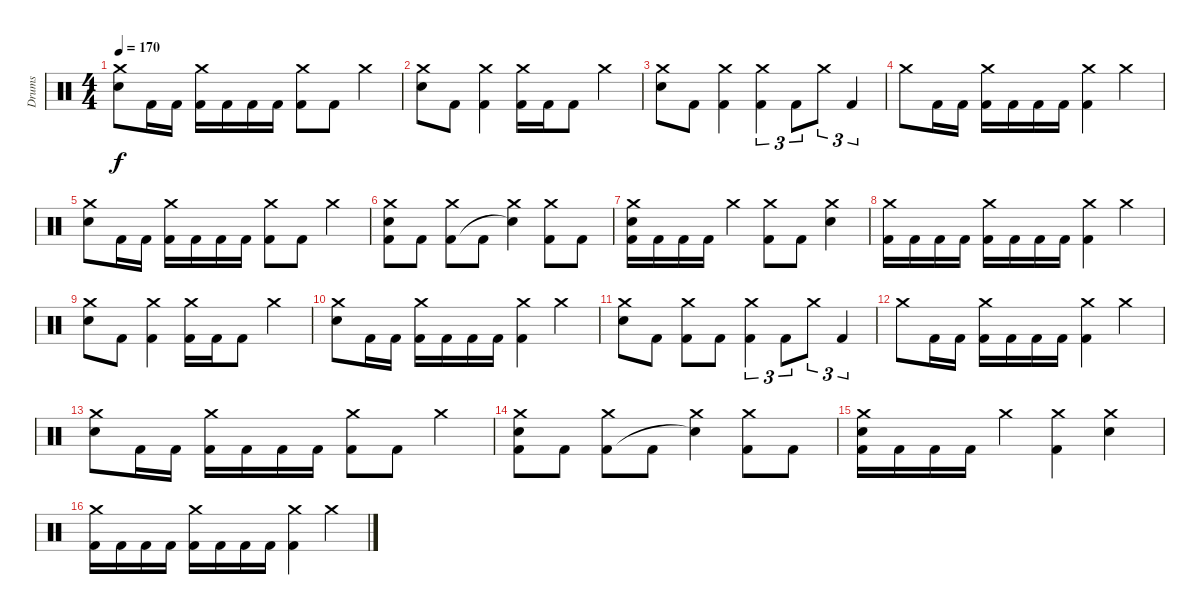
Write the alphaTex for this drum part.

\track ("Drums" "Drums") {instrument percussion}
\staff {score}
\articulation defaults
\ts (4 4)
\tempo 170
\clef neutral
\ks c
("Crash medium (hit)" "Snare (hit) 2").8{dy f} "Kick (hit) 2".16 "Kick (hit) 2".16 ("Crash medium (hit)" "Kick (hit) 2").16 "Kick (hit) 2".16 "Kick (hit) 2".16 "Kick (hit) 2".16 ("Crash medium (hit)" "Kick (hit) 2").8 "Kick (hit) 2".8 "Crash medium (hit)".4 |
("Crash medium (hit)" "Snare (hit) 2").8 "Kick (hit) 2".8 ("Crash medium (hit)" "Kick (hit) 2").4 ("Crash medium (hit)" "Kick (hit) 2").16 "Kick (hit) 2".16 "Kick (hit) 2".8 "Crash medium (hit)".4 |
("Crash medium (hit)" "Snare (hit) 2").8 "Kick (hit) 2".8 ("Crash medium (hit)" "Kick (hit) 2").4 ("Crash medium (hit)" "Kick (hit) 2").4{tu (3 2)} "Kick (hit) 2".8{tu (3 2) beam merge} "Crash medium (hit)".8{tu (3 2)} "Kick (hit) 2".4{tu (3 2)} |
"Crash medium (hit)".8 "Kick (hit) 2".16 "Kick (hit) 2".16 ("Crash medium (hit)" "Kick (hit) 2").16 "Kick (hit) 2".16 "Kick (hit) 2".16 "Kick (hit) 2".16 ("Crash medium (hit)" "Kick (hit) 2").4 "Crash medium (hit)".4 |
("Crash medium (hit)" "Snare (hit) 2").8 "Kick (hit) 2".16 "Kick (hit) 2".16 ("Crash medium (hit)" "Kick (hit) 2").16 "Kick (hit) 2".16 "Kick (hit) 2".16 "Kick (hit) 2".16 ("Crash medium (hit)" "Kick (hit) 2").8 "Kick (hit) 2".8 "Crash medium (hit)".4 |
("Crash medium (hit)" "Snare (hit) 2" "Kick (hit) 2").8 "Kick (hit) 2".8 ("Crash medium (hit)" "Kick (hit) 2").8 "Kick (hit) 2".8 ("Crash medium (hit)" "Snare (hit)"{t}).4 ("Crash medium (hit)" "Kick (hit) 2").8 "Kick (hit) 2".8 |
("Crash medium (hit)" "Snare (hit) 2" "Kick (hit) 2").16 "Kick (hit) 2".16 "Kick (hit) 2".16 "Kick (hit) 2".16 "Crash medium (hit)".4 ("Crash medium (hit)" "Kick (hit) 2").8 "Kick (hit) 2".8 ("Crash medium (hit)" "Snare (hit) 2").4 |
("Crash medium (hit)" "Kick (hit) 2").16 "Kick (hit) 2".16 "Kick (hit) 2".16 "Kick (hit) 2".16 ("Crash medium (hit)" "Kick (hit) 2").16 "Kick (hit) 2".16 "Kick (hit) 2".16 "Kick (hit) 2".16 ("Crash medium (hit)" "Kick (hit) 2").4 "Crash medium (hit)".4 |
("Crash medium (hit)" "Snare (hit) 2").8 "Kick (hit) 2".8 ("Crash medium (hit)" "Kick (hit) 2").4 ("Crash medium (hit)" "Kick (hit) 2").16 "Kick (hit) 2".16 "Kick (hit) 2".8 "Crash medium (hit)".4 |
("Crash medium (hit)" "Snare (hit) 2").8 "Kick (hit) 2".16 "Kick (hit) 2".16 ("Crash medium (hit)" "Kick (hit) 2").16 "Kick (hit) 2".16 "Kick (hit) 2".16 "Kick (hit) 2".16 ("Crash medium (hit)" "Kick (hit) 2").4 "Crash medium (hit)".4 |
("Crash medium (hit)" "Snare (hit) 2").8 "Kick (hit) 2".8 ("Crash medium (hit)" "Kick (hit) 2").8 "Kick (hit) 2".8 ("Crash medium (hit)" "Kick (hit) 2").4{tu (3 2)} "Kick (hit) 2".8{tu (3 2) beam merge} "Crash medium (hit)".8{tu (3 2)} "Kick (hit) 2".4{tu (3 2)} |
"Crash medium (hit)".8 "Kick (hit) 2".16 "Kick (hit) 2".16 ("Crash medium (hit)" "Kick (hit) 2").16 "Kick (hit) 2".16 "Kick (hit) 2".16 "Kick (hit) 2".16 ("Crash medium (hit)" "Kick (hit) 2").4 "Crash medium (hit)".4 |
("Crash medium (hit)" "Snare (hit) 2").8 "Kick (hit) 2".16 "Kick (hit) 2".16 ("Crash medium (hit)" "Kick (hit) 2").16 "Kick (hit) 2".16 "Kick (hit) 2".16 "Kick (hit) 2".16 ("Crash medium (hit)" "Kick (hit) 2").8 "Kick (hit) 2".8 "Crash medium (hit)".4 |
("Crash medium (hit)" "Snare (hit) 2" "Kick (hit) 2").8 "Kick (hit) 2".8 ("Crash medium (hit)" "Kick (hit) 2").8 "Kick (hit) 2".8 ("Crash medium (hit)" "Snare (hit)"{t}).4 ("Crash medium (hit)" "Kick (hit) 2").8 "Kick (hit) 2".8 |
("Crash medium (hit)" "Snare (hit) 2" "Kick (hit) 2").16 "Kick (hit) 2".16 "Kick (hit) 2".16 "Kick (hit) 2".16 "Crash medium (hit)".4 ("Crash medium (hit)" "Kick (hit) 2").4 ("Crash medium (hit)" "Snare (hit) 2").4 |
("Crash medium (hit)" "Kick (hit) 2").16 "Kick (hit) 2".16 "Kick (hit) 2".16 "Kick (hit) 2".16 ("Crash medium (hit)" "Kick (hit) 2").16 "Kick (hit) 2".16 "Kick (hit) 2".16 "Kick (hit) 2".16 ("Crash medium (hit)" "Kick (hit) 2").4 "Crash medium (hit)".4
